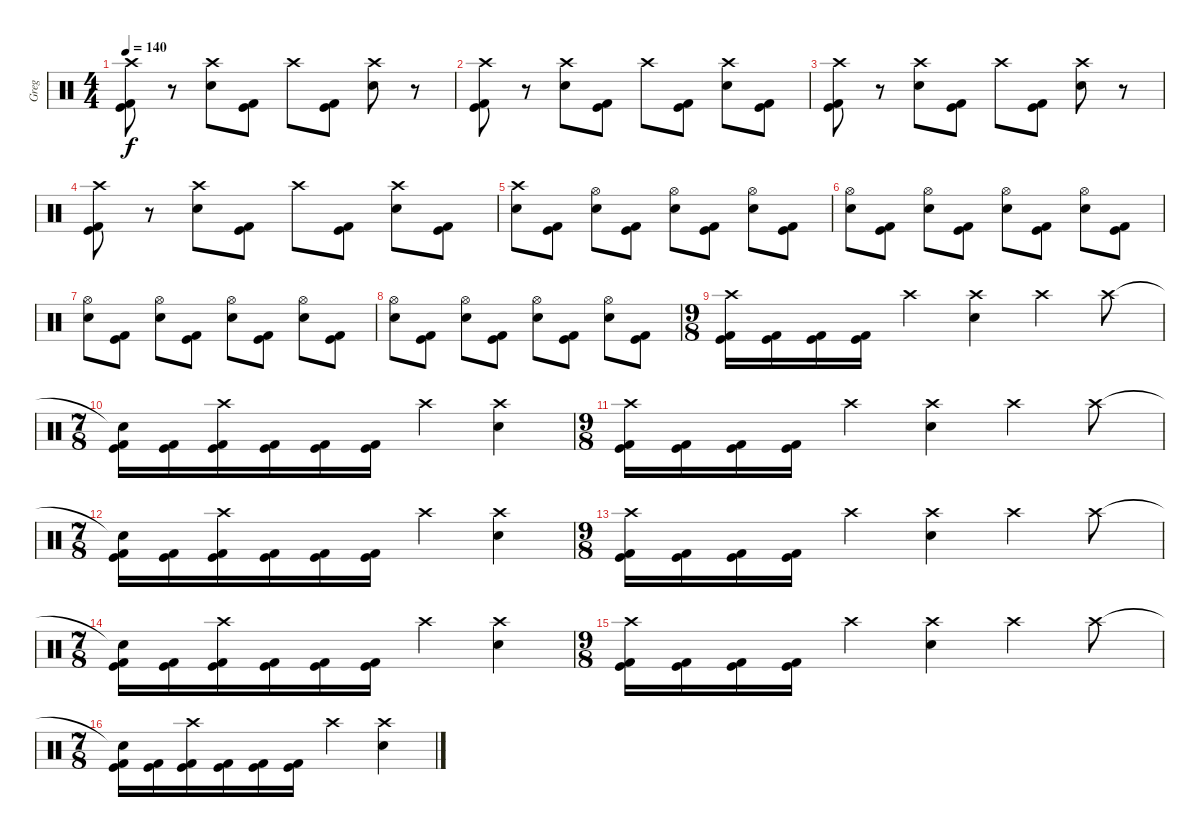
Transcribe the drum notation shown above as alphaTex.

\track ("Greg" "Greg") {instrument percussion}
\staff {score}
\articulation defaults
\ts (4 4)
\tempo 140
\clef neutral
\ks c
("Crash high (hit)" "Kick (hit)" "Kick (hit) 2").8{dy f} r.8 ("Crash high (hit)" "Snare (hit) 2").8 ("Kick (hit)" "Kick (hit) 2").8 "Crash high (hit)".8 ("Kick (hit)" "Kick (hit) 2").8 ("Crash high (hit)" "Snare (hit) 2").8 r.8 |
("Crash high (hit)" "Kick (hit)" "Kick (hit) 2").8 r.8 ("Crash high (hit)" "Snare (hit) 2").8 ("Kick (hit)" "Kick (hit) 2").8 "Crash high (hit)".8 ("Kick (hit)" "Kick (hit) 2").8 ("Crash high (hit)" "Snare (hit) 2").8 ("Kick (hit)" "Kick (hit) 2").8 |
("Crash high (hit)" "Kick (hit)" "Kick (hit) 2").8 r.8 ("Crash high (hit)" "Snare (hit) 2").8 ("Kick (hit)" "Kick (hit) 2").8 "Crash high (hit)".8 ("Kick (hit)" "Kick (hit) 2").8 ("Crash high (hit)" "Snare (hit) 2").8 r.8 |
("Crash high (hit)" "Kick (hit)" "Kick (hit) 2").8 r.8 ("Crash high (hit)" "Snare (hit) 2").8 ("Kick (hit)" "Kick (hit) 2").8 "Crash high (hit)".8 ("Kick (hit)" "Kick (hit) 2").8 ("Crash high (hit)" "Snare (hit) 2").8 ("Kick (hit)" "Kick (hit) 2").8 |
("Crash high (hit)" "Snare (hit) 2").8 ("Kick (hit)" "Kick (hit) 2").8 ("Hi-Hat (open)" "Snare (hit) 2").8 ("Kick (hit)" "Kick (hit) 2").8 ("Hi-Hat (open)" "Snare (hit) 2").8 ("Kick (hit)" "Kick (hit) 2").8 ("Hi-Hat (open)" "Snare (hit) 2").8 ("Kick (hit)" "Kick (hit) 2").8 |
("Hi-Hat (open)" "Snare (hit) 2").8 ("Kick (hit)" "Kick (hit) 2").8 ("Hi-Hat (open)" "Snare (hit) 2").8 ("Kick (hit)" "Kick (hit) 2").8 ("Hi-Hat (open)" "Snare (hit) 2").8 ("Kick (hit)" "Kick (hit) 2").8 ("Hi-Hat (open)" "Snare (hit) 2").8 ("Kick (hit)" "Kick (hit) 2").8 |
("Hi-Hat (open)" "Snare (hit) 2").8 ("Kick (hit)" "Kick (hit) 2").8 ("Hi-Hat (open)" "Snare (hit) 2").8 ("Kick (hit)" "Kick (hit) 2").8 ("Hi-Hat (open)" "Snare (hit) 2").8 ("Kick (hit)" "Kick (hit) 2").8 ("Hi-Hat (open)" "Snare (hit) 2").8 ("Kick (hit)" "Kick (hit) 2").8 |
("Hi-Hat (open)" "Snare (hit) 2").8 ("Kick (hit)" "Kick (hit) 2").8 ("Hi-Hat (open)" "Snare (hit) 2").8 ("Kick (hit)" "Kick (hit) 2").8 ("Hi-Hat (open)" "Snare (hit) 2").8 ("Kick (hit)" "Kick (hit) 2").8 ("Hi-Hat (open)" "Snare (hit) 2").8 ("Kick (hit)" "Kick (hit) 2").8 |
\ts (9 8)
("Crash high (hit)" "Kick (hit)" "Kick (hit) 2").16 ("Kick (hit)" "Kick (hit) 2").16 ("Kick (hit)" "Kick (hit) 2").16 ("Kick (hit)" "Kick (hit) 2").16 "Crash high (hit)".4 ("Crash high (hit)" "Snare (hit) 2").4 "Crash high (hit)".4 "Crash high (hit)".8 |
\ts (7 8)
("Snare (hit)"{t} "Kick (hit)" "Kick (hit) 2").16 ("Kick (hit)" "Kick (hit) 2").16 ("Crash high (hit)" "Kick (hit)" "Kick (hit) 2").16 ("Kick (hit)" "Kick (hit) 2").16 ("Kick (hit)" "Kick (hit) 2").16 ("Kick (hit)" "Kick (hit) 2").16 "Crash high (hit)".4 ("Crash high (hit)" "Snare (hit) 2").4 |
\ts (9 8)
("Crash high (hit)" "Kick (hit)" "Kick (hit) 2").16 ("Kick (hit)" "Kick (hit) 2").16 ("Kick (hit)" "Kick (hit) 2").16 ("Kick (hit)" "Kick (hit) 2").16 "Crash high (hit)".4 ("Crash high (hit)" "Snare (hit) 2").4 "Crash high (hit)".4 "Crash high (hit)".8 |
\ts (7 8)
("Snare (hit)"{t} "Kick (hit)" "Kick (hit) 2").16 ("Kick (hit)" "Kick (hit) 2").16 ("Crash high (hit)" "Kick (hit)" "Kick (hit) 2").16 ("Kick (hit)" "Kick (hit) 2").16 ("Kick (hit)" "Kick (hit) 2").16 ("Kick (hit)" "Kick (hit) 2").16 "Crash high (hit)".4 ("Crash high (hit)" "Snare (hit) 2").4 |
\ts (9 8)
("Crash high (hit)" "Kick (hit)" "Kick (hit) 2").16 ("Kick (hit)" "Kick (hit) 2").16 ("Kick (hit)" "Kick (hit) 2").16 ("Kick (hit)" "Kick (hit) 2").16 "Crash high (hit)".4 ("Crash high (hit)" "Snare (hit) 2").4 "Crash high (hit)".4 "Crash high (hit)".8 |
\ts (7 8)
("Snare (hit)"{t} "Kick (hit)" "Kick (hit) 2").16 ("Kick (hit)" "Kick (hit) 2").16 ("Crash high (hit)" "Kick (hit)" "Kick (hit) 2").16 ("Kick (hit)" "Kick (hit) 2").16 ("Kick (hit)" "Kick (hit) 2").16 ("Kick (hit)" "Kick (hit) 2").16 "Crash high (hit)".4 ("Crash high (hit)" "Snare (hit) 2").4 |
\ts (9 8)
("Crash high (hit)" "Kick (hit)" "Kick (hit) 2").16 ("Kick (hit)" "Kick (hit) 2").16 ("Kick (hit)" "Kick (hit) 2").16 ("Kick (hit)" "Kick (hit) 2").16 "Crash high (hit)".4 ("Crash high (hit)" "Snare (hit) 2").4 "Crash high (hit)".4 "Crash high (hit)".8 |
\ts (7 8)
("Snare (hit)"{t} "Kick (hit)" "Kick (hit) 2").16 ("Kick (hit)" "Kick (hit) 2").16 ("Crash high (hit)" "Kick (hit)" "Kick (hit) 2").16 ("Kick (hit)" "Kick (hit) 2").16 ("Kick (hit)" "Kick (hit) 2").16 ("Kick (hit)" "Kick (hit) 2").16 "Crash high (hit)".4 ("Crash high (hit)" "Snare (hit) 2").4
